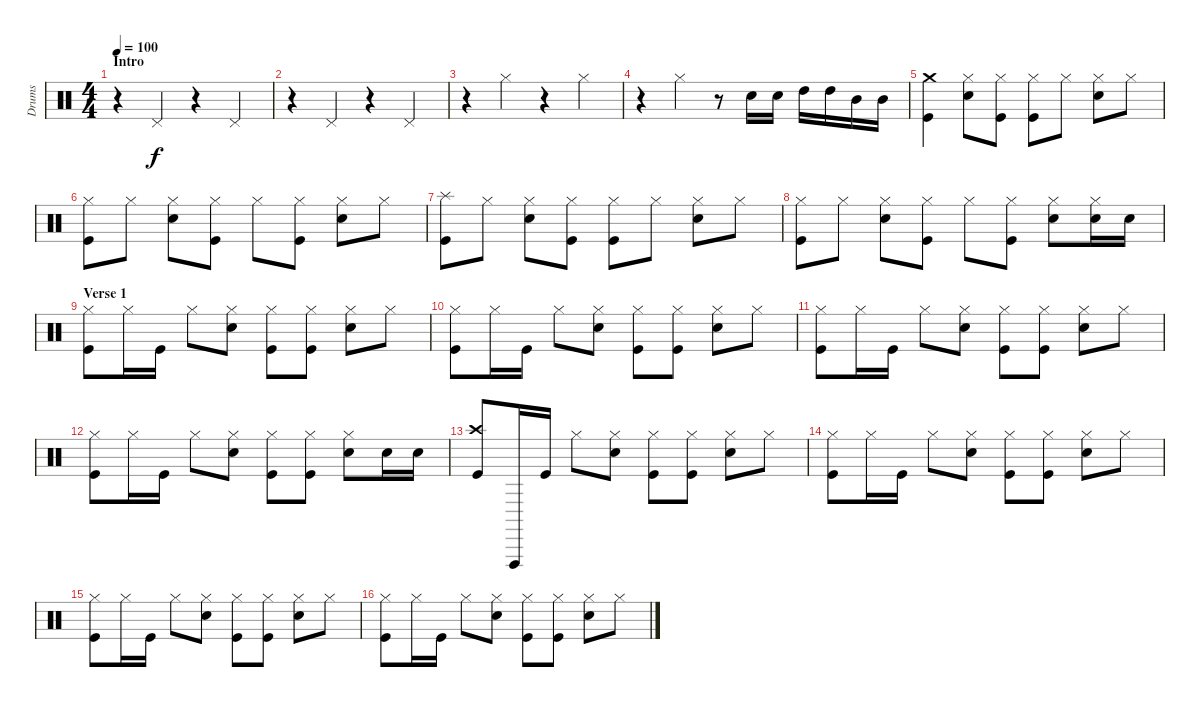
\track ("Drums" "Drums") {instrument percussion}
\staff {score}
\articulation defaults
\ts (4 4)
\section ("" "Intro")
\tempo 100
\clef neutral
\ks c
r.4{dy f} "Pedal Hi-Hat (hit)".4 r.4 "Pedal Hi-Hat (hit)".4 |
r.4 "Pedal Hi-Hat (hit)".4 r.4 "Pedal Hi-Hat (hit)".4 |
r.4 "Hi-Hat (closed)".4 r.4 "Hi-Hat (closed)".4 |
r.4 "Hi-Hat (closed)".4 r.8 "Electric Snare (hit)".16 "Electric Snare (hit)".16 "High Tom (hit)".16 "High Tom (hit)".16 "Mid Tom (hit)".16 "Mid Tom (hit)".16 |
("Crash medium (hit)" "Kick (hit)").4 ("Hi-Hat (closed)" "Electric Snare (hit)").8 ("Hi-Hat (closed)" "Kick (hit)").8 ("Hi-Hat (closed)" "Kick (hit)").8 "Hi-Hat (closed)".8 ("Hi-Hat (closed)" "Electric Snare (hit)").8 "Hi-Hat (closed)".8 |
("Hi-Hat (closed)" "Kick (hit)").8 "Hi-Hat (closed)".8 ("Hi-Hat (closed)" "Electric Snare (hit)").8 ("Hi-Hat (closed)" "Kick (hit)").8 "Hi-Hat (closed)".8 ("Hi-Hat (closed)" "Kick (hit)").8 ("Hi-Hat (closed)" "Electric Snare (hit)").8 "Hi-Hat (closed)".8 |
("Splash (hit)" "Kick (hit)").8 "Hi-Hat (closed)".8 ("Hi-Hat (closed)" "Electric Snare (hit)").8 ("Hi-Hat (closed)" "Kick (hit)").8 ("Hi-Hat (closed)" "Kick (hit)").8 "Hi-Hat (closed)".8 ("Hi-Hat (closed)" "Electric Snare (hit)").8 "Hi-Hat (closed)".8 |
("Hi-Hat (closed)" "Kick (hit)").8 "Hi-Hat (closed)".8 ("Hi-Hat (closed)" "Electric Snare (hit)").8 ("Hi-Hat (closed)" "Kick (hit)").8 "Hi-Hat (closed)".8 ("Hi-Hat (closed)" "Kick (hit)").8 ("Hi-Hat (closed)" "Electric Snare (hit)").8 ("Hi-Hat (closed)" "Electric Snare (hit)").16 "Electric Snare (hit)".16 |
\section ("" "Verse 1")
("Hi-Hat (closed)" "Kick (hit)").8 "Hi-Hat (closed)".16 "Kick (hit)".16 "Hi-Hat (closed)".8 ("Hi-Hat (closed)" "Electric Snare (hit)").8 ("Hi-Hat (closed)" "Kick (hit)").8 ("Hi-Hat (closed)" "Kick (hit)").8 ("Hi-Hat (closed)" "Electric Snare (hit)").8 "Hi-Hat (closed)".8 |
("Hi-Hat (closed)" "Kick (hit)").8 "Hi-Hat (closed)".16 "Kick (hit)".16 "Hi-Hat (closed)".8 ("Hi-Hat (closed)" "Electric Snare (hit)").8 ("Hi-Hat (closed)" "Kick (hit)").8 ("Hi-Hat (closed)" "Kick (hit)").8 ("Hi-Hat (closed)" "Electric Snare (hit)").8 "Hi-Hat (closed)".8 |
("Hi-Hat (closed)" "Kick (hit)").8 "Hi-Hat (closed)".16 "Kick (hit)".16 "Hi-Hat (closed)".8 ("Hi-Hat (closed)" "Electric Snare (hit)").8 ("Hi-Hat (closed)" "Kick (hit)").8 ("Hi-Hat (closed)" "Kick (hit)").8 ("Hi-Hat (closed)" "Electric Snare (hit)").8 "Hi-Hat (closed)".8 |
("Hi-Hat (closed)" "Kick (hit)").8 "Hi-Hat (closed)".16 "Kick (hit)".16 "Hi-Hat (closed)".8 ("Hi-Hat (closed)" "Electric Snare (hit)").8 ("Hi-Hat (closed)" "Kick (hit)").8 ("Hi-Hat (closed)" "Kick (hit)").8 ("Hi-Hat (closed)" "Electric Snare (hit)").8 "Electric Snare (hit)".16 "Electric Snare (hit)".16 |
("Crash high (hit)" "Kick (hit)").8 "Vibraslap (hit)".16 "Kick (hit)".16 "Hi-Hat (closed)".8 ("Hi-Hat (closed)" "Electric Snare (hit)").8 ("Hi-Hat (closed)" "Kick (hit)").8 ("Hi-Hat (closed)" "Kick (hit)").8 ("Hi-Hat (closed)" "Electric Snare (hit)").8 "Hi-Hat (closed)".8 |
("Hi-Hat (closed)" "Kick (hit)").8 "Hi-Hat (closed)".16 "Kick (hit)".16 "Hi-Hat (closed)".8 ("Hi-Hat (closed)" "Electric Snare (hit)").8 ("Hi-Hat (closed)" "Kick (hit)").8 ("Hi-Hat (closed)" "Kick (hit)").8 ("Hi-Hat (closed)" "Electric Snare (hit)").8 "Hi-Hat (closed)".8 |
("Hi-Hat (closed)" "Kick (hit)").8 "Hi-Hat (closed)".16 "Kick (hit)".16 "Hi-Hat (closed)".8 ("Hi-Hat (closed)" "Electric Snare (hit)").8 ("Hi-Hat (closed)" "Kick (hit)").8 ("Hi-Hat (closed)" "Kick (hit)").8 ("Hi-Hat (closed)" "Electric Snare (hit)").8 "Hi-Hat (closed)".8 |
("Hi-Hat (closed)" "Kick (hit)").8 "Hi-Hat (closed)".16 "Kick (hit)".16 "Hi-Hat (closed)".8 ("Hi-Hat (closed)" "Electric Snare (hit)").8 ("Hi-Hat (closed)" "Kick (hit)").8 ("Hi-Hat (closed)" "Kick (hit)").8 ("Hi-Hat (closed)" "Electric Snare (hit)").8 "Hi-Hat (closed)".8
